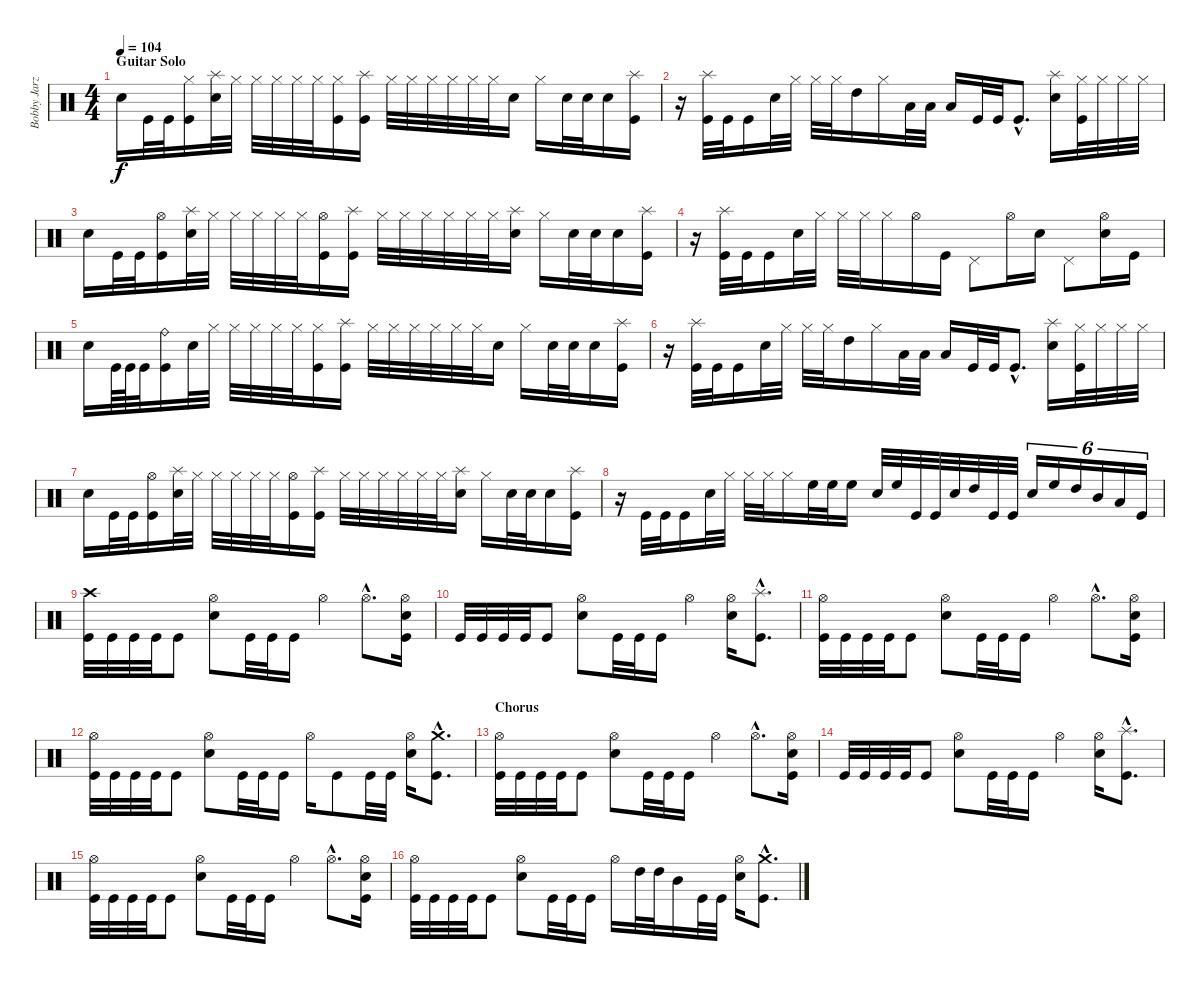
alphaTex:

\track ("Bobby Jarzombek" "Bobby Jarz") {instrument percussion}
\staff {score}
\articulation defaults
\ts (4 4)
\section ("" "Guitar Solo")
\tempo 104
\clef neutral
\ks c "Electric Snare (hit)".16{dy f} "Kick (hit)".32 "Kick (hit)".32
("Hi-Hat (closed)" "Kick (hit)").16 ("Splash (hit)" "Electric Snare (hit)").32 "Hi-Hat (closed)".32 "Hi-Hat (closed)".32 "Hi-Hat (closed)".32 "Hi-Hat (closed)".32 "Hi-Hat (closed)".32 ("Hi-Hat (closed)" "Kick (hit)").16 ("Splash (hit)" "Kick (hit)").16 "Hi-Hat (closed)".32 "Hi-Hat (closed)".32 "Hi-Hat (closed)".32 "Hi-Hat (closed)".32 "Hi-Hat (closed)".32 "Hi-Hat (closed)".32 "Electric Snare (hit)".16 "Hi-Hat (closed)".16 "Electric Snare (hit)".32 "Electric Snare (hit)".32 "Electric Snare (hit)".16 ("Splash (hit)" "Kick (hit)").16 |
r.16 ("Splash (hit)" "Kick (hit)").32 "Kick (hit)".32 "Kick (hit)".16 "Electric Snare (hit)".32 "Hi-Hat (closed)".32 "Hi-Hat (closed)".32 "Hi-Hat (closed)".32 "High Tom (hit)".16 "Hi-Hat (closed)".16 "Low Tom (hit)".32 "Low Tom (hit)".32 "Low Tom (hit)".16 "Kick (hit)".32 "Kick (hit)".32 "Kick (hit)"{hac}.8{d} ("Splash (hit)" "Electric Snare (hit)").16 ("Hi-Hat (closed)" "Kick (hit)").32 "Hi-Hat (closed)".32 "Hi-Hat (closed)".32 "Hi-Hat (closed)".32 |
"Electric Snare (hit)".16 "Kick (hit)".32 "Kick (hit)".32 ("Hi-Hat (open)" "Kick (hit)").16 ("Splash (hit)" "Electric Snare (hit)").32 "Hi-Hat (closed)".32 "Hi-Hat (closed)".32 "Hi-Hat (closed)".32 "Hi-Hat (closed)".32 "Hi-Hat (closed)".32 ("Hi-Hat (open)" "Kick (hit)").16 ("Splash (hit)" "Kick (hit)").16 "Hi-Hat (closed)".32 "Hi-Hat (closed)".32 "Hi-Hat (closed)".32 "Hi-Hat (closed)".32 "Hi-Hat (closed)".32 "Hi-Hat (closed)".32 ("Splash (hit)" "Electric Snare (hit)").16 "Hi-Hat (closed)".16 "Electric Snare (hit)".32 "Electric Snare (hit)".32 "Electric Snare (hit)".16 ("Splash (hit)" "Kick (hit)").16 |
r.16 ("Splash (hit)" "Kick (hit)").32 "Kick (hit)".32 "Kick (hit)".16 "Electric Snare (hit)".32 "Hi-Hat (closed)".32 "Hi-Hat (closed)".32 "Hi-Hat (closed)".32 "Hi-Hat (closed)".16 "Hi-Hat (open)".16 "Kick (hit)".16 "Pedal Hi-Hat (hit)".8 "Hi-Hat (open)".16 "Electric Snare (hit)".16 "Pedal Hi-Hat (hit)".8 ("Hi-Hat (open)" "Electric Snare (hit)").16 "Kick (hit)".16 |
"Electric Snare (hit)".16 "Kick (hit)".64 "Kick (hit)".64 "Kick (hit)".32 ("Ride (bell)" "Kick (hit)").16 "Electric Snare (hit)".32 "Hi-Hat (closed)".32 "Hi-Hat (closed)".32 "Hi-Hat (closed)".32 "Hi-Hat (closed)".32 "Hi-Hat (closed)".32 ("Hi-Hat (closed)" "Kick (hit)").16 ("Splash (hit)" "Kick (hit)").16 "Hi-Hat (closed)".32 "Hi-Hat (closed)".32 "Hi-Hat (closed)".32 "Hi-Hat (closed)".32 "Hi-Hat (closed)".32 "Hi-Hat (closed)".32 "Electric Snare (hit)".16 "Hi-Hat (closed)".16 "Electric Snare (hit)".32 "Electric Snare (hit)".32 "Electric Snare (hit)".16 ("Splash (hit)" "Kick (hit)").16 |
r.16 ("Splash (hit)" "Kick (hit)").32 "Kick (hit)".32 "Kick (hit)".16 "Electric Snare (hit)".32 "Hi-Hat (closed)".32 "Hi-Hat (closed)".32 "Hi-Hat (closed)".32 "High Tom (hit)".16 "Hi-Hat (closed)".16 "Low Tom (hit)".32 "Low Tom (hit)".32 "Low Tom (hit)".16 "Kick (hit)".32 "Kick (hit)".32 "Kick (hit)"{hac}.8{d} ("Splash (hit)" "Electric Snare (hit)").16 ("Hi-Hat (closed)" "Kick (hit)").32 "Hi-Hat (closed)".32 "Hi-Hat (closed)".32 "Hi-Hat (closed)".32 |
"Electric Snare (hit)".16 "Kick (hit)".32 "Kick (hit)".32 ("Hi-Hat (open)" "Kick (hit)").16 ("Splash (hit)" "Electric Snare (hit)").32 "Hi-Hat (closed)".32 "Hi-Hat (closed)".32 "Hi-Hat (closed)".32 "Hi-Hat (closed)".32 "Hi-Hat (closed)".32 ("Hi-Hat (open)" "Kick (hit)").16 ("Splash (hit)" "Kick (hit)").16 "Hi-Hat (closed)".32 "Hi-Hat (closed)".32 "Hi-Hat (closed)".32 "Hi-Hat (closed)".32 "Hi-Hat (closed)".32 "Hi-Hat (closed)".32 ("Splash (hit)" "Electric Snare (hit)").16 "Hi-Hat (closed)".16 "Electric Snare (hit)".32 "Electric Snare (hit)".32 "Electric Snare (hit)".16 ("Splash (hit)" "Kick (hit)").16 |
r.16 "Kick (hit)".32 "Kick (hit)".32 "Kick (hit)".16 "Electric Snare (hit)".32 "Hi-Hat (closed)".32 "Hi-Hat (closed)".32 "Hi-Hat (closed)".32 "Hi-Hat (closed)".16 "High Floor Tom (hit)".32 "High Floor Tom (hit)".32 "High Floor Tom (hit)".16 "Electric Snare (hit)".32 "High Floor Tom (hit)".32 "Kick (hit)".32 "Kick (hit)".32 "Electric Snare (hit)".32 "High Tom (hit)".32 "Kick (hit)".32 "Kick (hit)".32 "Electric Snare (hit)".16{tu (6 4)} "High Floor Tom (hit)".16{tu (6 4)} "High Tom (hit)".16{tu (6 4)} "Mid Tom (hit)".16{tu (6 4)} "Low Tom (hit)".16{tu (6 4)} "Kick (hit)".16{tu (6 4)} |
("Crash high (hit)" "Kick (hit)").32 "Kick (hit)".32 "Kick (hit)".32 "Kick (hit)".32 "Kick (hit)".8 ("Hi-Hat (open)" "Electric Snare (hit)").8 "Kick (hit)".32 "Kick (hit)".32 "Kick (hit)".16 "Hi-Hat (open)".4 "Hi-Hat (open)"{hac}.8{d} ("Hi-Hat (open)" "Electric Snare (hit)" "Kick (hit)").16 |
"Kick (hit)".32 "Kick (hit)".32 "Kick (hit)".32 "Kick (hit)".32 "Kick (hit)".8 ("Hi-Hat (open)" "Electric Snare (hit)").8 "Kick (hit)".32 "Kick (hit)".32 "Kick (hit)".16 "Hi-Hat (open)".4 ("Hi-Hat (open)" "Electric Snare (hit)").16 ("Splash (hit)"{hac} "Kick (hit)"{hac}).8{d} |
("Hi-Hat (open)" "Kick (hit)").32 "Kick (hit)".32 "Kick (hit)".32 "Kick (hit)".32 "Kick (hit)".8 ("Hi-Hat (open)" "Electric Snare (hit)").8 "Kick (hit)".32 "Kick (hit)".32 "Kick (hit)".16 "Hi-Hat (open)".4 "Hi-Hat (open)"{hac}.8{d} ("Hi-Hat (open)" "Electric Snare (hit)" "Kick (hit)").16 |
("Hi-Hat (open)" "Kick (hit)").32 "Kick (hit)".32 "Kick (hit)".32 "Kick (hit)".32 "Kick (hit)".8 ("Hi-Hat (open)" "Electric Snare (hit)").8 "Kick (hit)".32 "Kick (hit)".32 "Kick (hit)".16 "Hi-Hat (open)".16 "Kick (hit)".8 "Kick (hit)".32 "Kick (hit)".32 ("Hi-Hat (open)" "Electric Snare (hit)").16 ("Crash medium (hit)"{hac} "Kick (hit)"{hac}).8{d} |
\section ("" "Chorus")
("Hi-Hat (open)" "Kick (hit)").32 "Kick (hit)".32 "Kick (hit)".32 "Kick (hit)".32 "Kick (hit)".8 ("Hi-Hat (open)" "Electric Snare (hit)").8 "Kick (hit)".32 "Kick (hit)".32 "Kick (hit)".16 "Hi-Hat (open)".4 "Hi-Hat (open)"{hac}.8{d} ("Hi-Hat (open)" "Electric Snare (hit)" "Kick (hit)").16 |
"Kick (hit)".32 "Kick (hit)".32 "Kick (hit)".32 "Kick (hit)".32 "Kick (hit)".8 ("Hi-Hat (open)" "Electric Snare (hit)").8 "Kick (hit)".32 "Kick (hit)".32 "Kick (hit)".16 "Hi-Hat (open)".4 ("Hi-Hat (open)" "Electric Snare (hit)").16 ("Splash (hit)"{hac} "Kick (hit)"{hac}).8{d} |
("Hi-Hat (open)" "Kick (hit)").32 "Kick (hit)".32 "Kick (hit)".32 "Kick (hit)".32 "Kick (hit)".8 ("Hi-Hat (open)" "Electric Snare (hit)").8 "Kick (hit)".32 "Kick (hit)".32 "Kick (hit)".16 "Hi-Hat (open)".4 "Hi-Hat (open)"{hac}.8{d} ("Hi-Hat (open)" "Electric Snare (hit)" "Kick (hit)").16 |
("Hi-Hat (open)" "Kick (hit)").32 "Kick (hit)".32 "Kick (hit)".32 "Kick (hit)".32 "Kick (hit)".8 ("Hi-Hat (open)" "Electric Snare (hit)").8 "Kick (hit)".32 "Kick (hit)".32 "Kick (hit)".16 "Hi-Hat (open)".16 "High Tom (hit)".32 "High Tom (hit)".32 "Mid Tom (hit)".16 "Kick (hit)".32 "Kick (hit)".32 ("Hi-Hat (open)" "Electric Snare (hit)").16 ("Crash medium (hit)"{hac} "Kick (hit)"{hac}).8{d}
